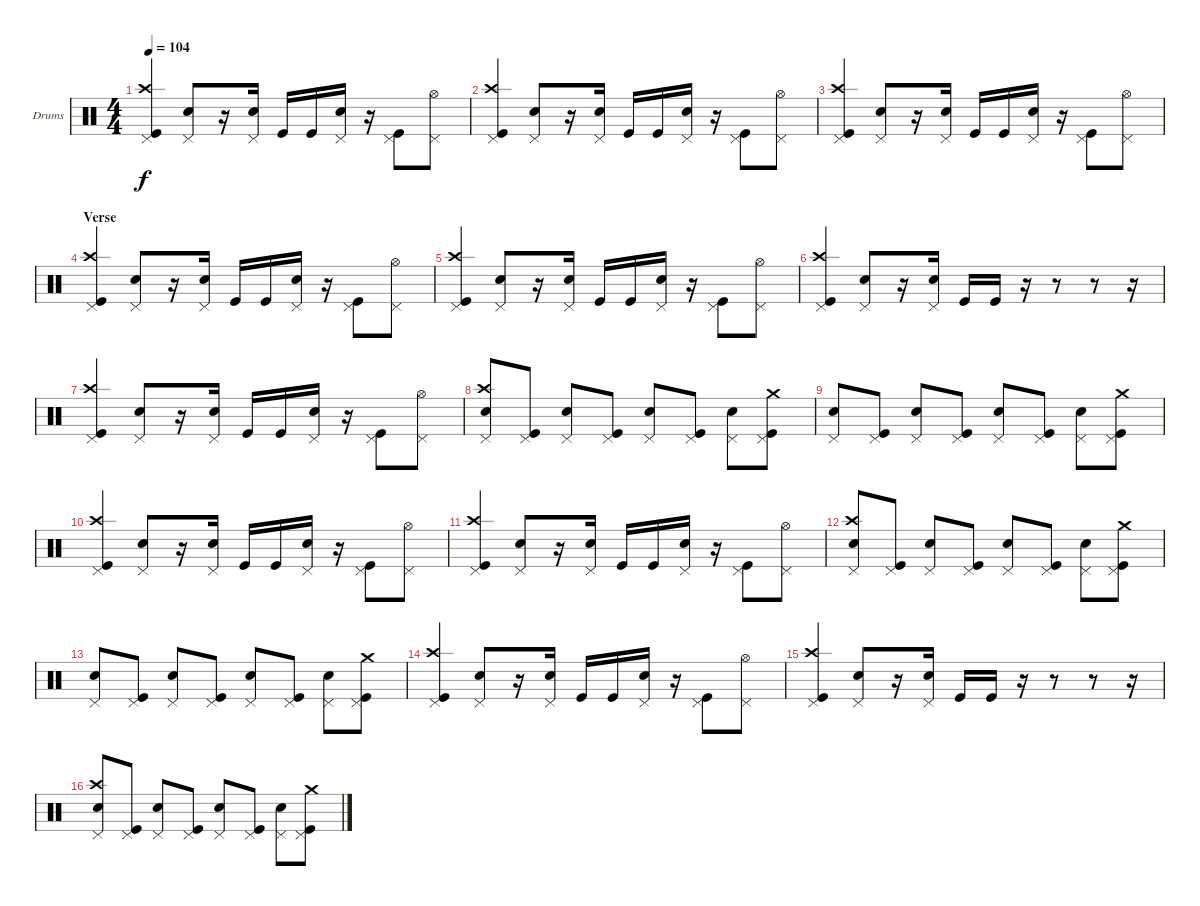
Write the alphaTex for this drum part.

\defaultSystemsLayout 4
\bracketExtendMode groupsimilarinstruments
\firstSystemTrackNameOrientation horizontal
\otherSystemsTrackNameOrientation horizontal
\track ("Drumkit" "Drums") {instrument percussion}
\staff {score}
\articulation defaults
\ts (4 4)
\tempo 104
\clef neutral
\ks c
("Pedal Hi-Hat (hit)" "Crash high (hit)" "Kick (hit)").4{dy f} ("Pedal Hi-Hat (hit)" "Snare (hit) 2").8 r.16 ("Pedal Hi-Hat (hit)" "Snare (hit) 2").16 "Kick (hit)".16 "Kick (hit)".16 ("Pedal Hi-Hat (hit)" "Snare (hit) 2").16 r.16 ("Pedal Hi-Hat (hit)" "Kick (hit)").8 ("Pedal Hi-Hat (hit)" "Hi-Hat (open)").8 |
("Pedal Hi-Hat (hit)" "Crash high (hit)" "Kick (hit)").4 ("Pedal Hi-Hat (hit)" "Snare (hit) 2").8 r.16 ("Pedal Hi-Hat (hit)" "Snare (hit) 2").16 "Kick (hit)".16 "Kick (hit)".16 ("Pedal Hi-Hat (hit)" "Snare (hit) 2").16 r.16 ("Pedal Hi-Hat (hit)" "Kick (hit)").8 ("Pedal Hi-Hat (hit)" "Hi-Hat (open)").8 |
("Pedal Hi-Hat (hit)" "Crash high (hit)" "Kick (hit)").4 ("Pedal Hi-Hat (hit)" "Snare (hit) 2").8 r.16 ("Pedal Hi-Hat (hit)" "Snare (hit) 2").16 "Kick (hit)".16 "Kick (hit)".16 ("Pedal Hi-Hat (hit)" "Snare (hit) 2").16 r.16 ("Pedal Hi-Hat (hit)" "Kick (hit)").8 ("Pedal Hi-Hat (hit)" "Hi-Hat (open)").8 |
\section ("" "Verse")
("Pedal Hi-Hat (hit)" "Crash high (hit)" "Kick (hit)").4 ("Pedal Hi-Hat (hit)" "Snare (hit) 2").8 r.16 ("Pedal Hi-Hat (hit)" "Snare (hit) 2").16 "Kick (hit)".16 "Kick (hit)".16 ("Pedal Hi-Hat (hit)" "Snare (hit) 2").16 r.16 ("Pedal Hi-Hat (hit)" "Kick (hit)").8 ("Pedal Hi-Hat (hit)" "Hi-Hat (open)").8 |
("Pedal Hi-Hat (hit)" "Crash high (hit)" "Kick (hit)").4 ("Pedal Hi-Hat (hit)" "Snare (hit) 2").8 r.16 ("Pedal Hi-Hat (hit)" "Snare (hit) 2").16 "Kick (hit)".16 "Kick (hit)".16 ("Pedal Hi-Hat (hit)" "Snare (hit) 2").16 r.16 ("Pedal Hi-Hat (hit)" "Kick (hit)").8 ("Pedal Hi-Hat (hit)" "Hi-Hat (open)").8 |
("Pedal Hi-Hat (hit)" "Crash high (hit)" "Kick (hit)").4 ("Pedal Hi-Hat (hit)" "Snare (hit) 2").8 r.16 ("Pedal Hi-Hat (hit)" "Snare (hit) 2").16 "Kick (hit)".16 "Kick (hit)".16 r.16 r.8 r.8 r.16 |
("Pedal Hi-Hat (hit)" "Crash high (hit)" "Kick (hit)").4 ("Pedal Hi-Hat (hit)" "Snare (hit) 2").8 r.16 ("Pedal Hi-Hat (hit)" "Snare (hit) 2").16 "Kick (hit)".16 "Kick (hit)".16 ("Pedal Hi-Hat (hit)" "Snare (hit) 2").16 r.16 ("Pedal Hi-Hat (hit)" "Kick (hit)").8 ("Pedal Hi-Hat (hit)" "Hi-Hat (open)").8 |
("Pedal Hi-Hat (hit)" "Snare (hit) 2" "Crash high (hit)").8 ("Pedal Hi-Hat (hit)" "Kick (hit)").8 ("Pedal Hi-Hat (hit)" "Snare (hit) 2").8 ("Pedal Hi-Hat (hit)" "Kick (hit)").8 ("Pedal Hi-Hat (hit)" "Snare (hit) 2").8 ("Pedal Hi-Hat (hit)" "Kick (hit)").8 ("Pedal Hi-Hat (hit)" "Snare (hit) 2").8 ("Pedal Hi-Hat (hit)" "Kick (hit)" "Crash medium (hit)").8 |
("Pedal Hi-Hat (hit)" "Snare (hit) 2").8 ("Pedal Hi-Hat (hit)" "Kick (hit)").8 ("Pedal Hi-Hat (hit)" "Snare (hit) 2").8 ("Pedal Hi-Hat (hit)" "Kick (hit)").8 ("Pedal Hi-Hat (hit)" "Snare (hit) 2").8 ("Pedal Hi-Hat (hit)" "Kick (hit)").8 ("Pedal Hi-Hat (hit)" "Snare (hit) 2").8 ("Pedal Hi-Hat (hit)" "Kick (hit)" "Crash medium (hit)").8 |
("Pedal Hi-Hat (hit)" "Crash high (hit)" "Kick (hit)").4 ("Pedal Hi-Hat (hit)" "Snare (hit) 2").8 r.16 ("Pedal Hi-Hat (hit)" "Snare (hit) 2").16 "Kick (hit)".16 "Kick (hit)".16 ("Pedal Hi-Hat (hit)" "Snare (hit) 2").16 r.16 ("Pedal Hi-Hat (hit)" "Kick (hit)").8 ("Pedal Hi-Hat (hit)" "Hi-Hat (open)").8 |
("Pedal Hi-Hat (hit)" "Crash high (hit)" "Kick (hit)").4 ("Pedal Hi-Hat (hit)" "Snare (hit) 2").8 r.16 ("Pedal Hi-Hat (hit)" "Snare (hit) 2").16 "Kick (hit)".16 "Kick (hit)".16 ("Pedal Hi-Hat (hit)" "Snare (hit) 2").16 r.16 ("Pedal Hi-Hat (hit)" "Kick (hit)").8 ("Pedal Hi-Hat (hit)" "Hi-Hat (open)").8 |
("Pedal Hi-Hat (hit)" "Snare (hit) 2" "Crash high (hit)").8 ("Pedal Hi-Hat (hit)" "Kick (hit)").8 ("Pedal Hi-Hat (hit)" "Snare (hit) 2").8 ("Pedal Hi-Hat (hit)" "Kick (hit)").8 ("Pedal Hi-Hat (hit)" "Snare (hit) 2").8 ("Pedal Hi-Hat (hit)" "Kick (hit)").8 ("Pedal Hi-Hat (hit)" "Snare (hit) 2").8 ("Pedal Hi-Hat (hit)" "Kick (hit)" "Crash medium (hit)").8 |
("Pedal Hi-Hat (hit)" "Snare (hit) 2").8 ("Pedal Hi-Hat (hit)" "Kick (hit)").8 ("Pedal Hi-Hat (hit)" "Snare (hit) 2").8 ("Pedal Hi-Hat (hit)" "Kick (hit)").8 ("Pedal Hi-Hat (hit)" "Snare (hit) 2").8 ("Pedal Hi-Hat (hit)" "Kick (hit)").8 ("Pedal Hi-Hat (hit)" "Snare (hit) 2").8 ("Pedal Hi-Hat (hit)" "Kick (hit)" "Crash medium (hit)").8 |
("Pedal Hi-Hat (hit)" "Crash high (hit)" "Kick (hit)").4 ("Pedal Hi-Hat (hit)" "Snare (hit) 2").8 r.16 ("Pedal Hi-Hat (hit)" "Snare (hit) 2").16 "Kick (hit)".16 "Kick (hit)".16 ("Pedal Hi-Hat (hit)" "Snare (hit) 2").16 r.16 ("Pedal Hi-Hat (hit)" "Kick (hit)").8 ("Pedal Hi-Hat (hit)" "Hi-Hat (open)").8 |
("Pedal Hi-Hat (hit)" "Crash high (hit)" "Kick (hit)").4 ("Pedal Hi-Hat (hit)" "Snare (hit) 2").8 r.16 ("Pedal Hi-Hat (hit)" "Snare (hit) 2").16 "Kick (hit)".16 "Kick (hit)".16 r.16 r.8 r.8 r.16 |
("Pedal Hi-Hat (hit)" "Snare (hit) 2" "Crash high (hit)").8 ("Pedal Hi-Hat (hit)" "Kick (hit)").8 ("Pedal Hi-Hat (hit)" "Snare (hit) 2").8 ("Pedal Hi-Hat (hit)" "Kick (hit)").8 ("Pedal Hi-Hat (hit)" "Snare (hit) 2").8 ("Pedal Hi-Hat (hit)" "Kick (hit)").8 ("Pedal Hi-Hat (hit)" "Snare (hit) 2").8 ("Pedal Hi-Hat (hit)" "Kick (hit)" "Crash medium (hit)").8
